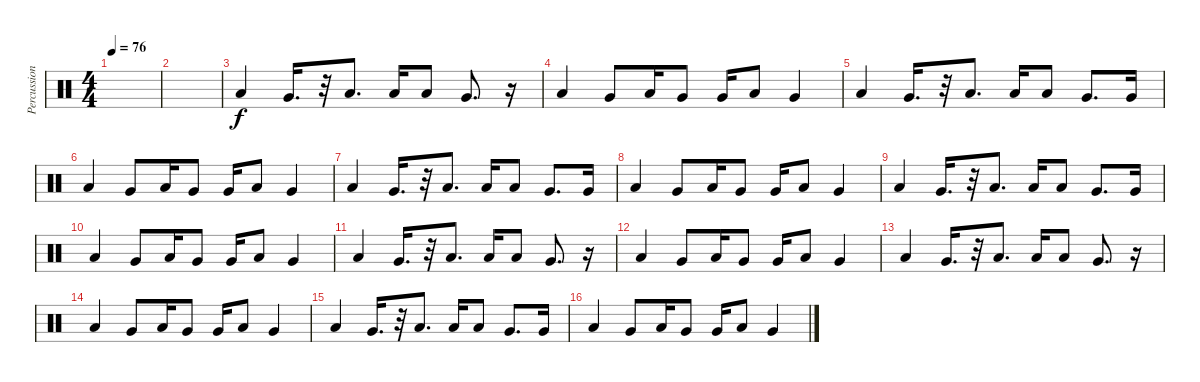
\track ("Percussion" "Percussion") {instrument percussion}
\staff {score}
\articulation defaults
\ts (4 4)
\tempo 76
\clef neutral
\ks c
|
|
"Low Floor Tom (hit)".4 "Very Low Tom (hit)".16{d} r.32 "Low Floor Tom (hit)".8{d} "Low Floor Tom (hit)".16 "Low Floor Tom (hit)".8 "Very Low Tom (hit)".8{d} r.16 |
"Low Floor Tom (hit)".4 "Very Low Tom (hit)".8 "Low Floor Tom (hit)".16 "Very Low Tom (hit)".8 "Very Low Tom (hit)".16 "Low Floor Tom (hit)".8 "Very Low Tom (hit)".4 |
"Low Floor Tom (hit)".4 "Very Low Tom (hit)".16{d} r.32 "Low Floor Tom (hit)".8{d} "Low Floor Tom (hit)".16 "Low Floor Tom (hit)".8 "Very Low Tom (hit)".8{d} "Very Low Tom (hit)".16 |
"Low Floor Tom (hit)".4 "Very Low Tom (hit)".8 "Low Floor Tom (hit)".16 "Very Low Tom (hit)".8 "Very Low Tom (hit)".16 "Low Floor Tom (hit)".8 "Very Low Tom (hit)".4 |
"Low Floor Tom (hit)".4 "Very Low Tom (hit)".16{d} r.32 "Low Floor Tom (hit)".8{d} "Low Floor Tom (hit)".16 "Low Floor Tom (hit)".8 "Very Low Tom (hit)".8{d} "Very Low Tom (hit)".16 |
"Low Floor Tom (hit)".4 "Very Low Tom (hit)".8 "Low Floor Tom (hit)".16 "Very Low Tom (hit)".8 "Very Low Tom (hit)".16 "Low Floor Tom (hit)".8 "Very Low Tom (hit)".4 |
"Low Floor Tom (hit)".4 "Very Low Tom (hit)".16{d} r.32 "Low Floor Tom (hit)".8{d} "Low Floor Tom (hit)".16 "Low Floor Tom (hit)".8 "Very Low Tom (hit)".8{d} "Very Low Tom (hit)".16 |
"Low Floor Tom (hit)".4 "Very Low Tom (hit)".8 "Low Floor Tom (hit)".16 "Very Low Tom (hit)".8 "Very Low Tom (hit)".16 "Low Floor Tom (hit)".8 "Very Low Tom (hit)".4 |
"Low Floor Tom (hit)".4 "Very Low Tom (hit)".16{d} r.32 "Low Floor Tom (hit)".8{d} "Low Floor Tom (hit)".16 "Low Floor Tom (hit)".8 "Very Low Tom (hit)".8{d} r.16 |
"Low Floor Tom (hit)".4 "Very Low Tom (hit)".8 "Low Floor Tom (hit)".16 "Very Low Tom (hit)".8 "Very Low Tom (hit)".16 "Low Floor Tom (hit)".8 "Very Low Tom (hit)".4 |
"Low Floor Tom (hit)".4 "Very Low Tom (hit)".16{d} r.32 "Low Floor Tom (hit)".8{d} "Low Floor Tom (hit)".16 "Low Floor Tom (hit)".8 "Very Low Tom (hit)".8{d} r.16 |
"Low Floor Tom (hit)".4 "Very Low Tom (hit)".8 "Low Floor Tom (hit)".16 "Very Low Tom (hit)".8 "Very Low Tom (hit)".16 "Low Floor Tom (hit)".8 "Very Low Tom (hit)".4 |
"Low Floor Tom (hit)".4 "Very Low Tom (hit)".16{d} r.32 "Low Floor Tom (hit)".8{d} "Low Floor Tom (hit)".16 "Low Floor Tom (hit)".8 "Very Low Tom (hit)".8{d} "Very Low Tom (hit)".16 |
"Low Floor Tom (hit)".4 "Very Low Tom (hit)".8 "Low Floor Tom (hit)".16 "Very Low Tom (hit)".8 "Very Low Tom (hit)".16 "Low Floor Tom (hit)".8 "Very Low Tom (hit)".4
